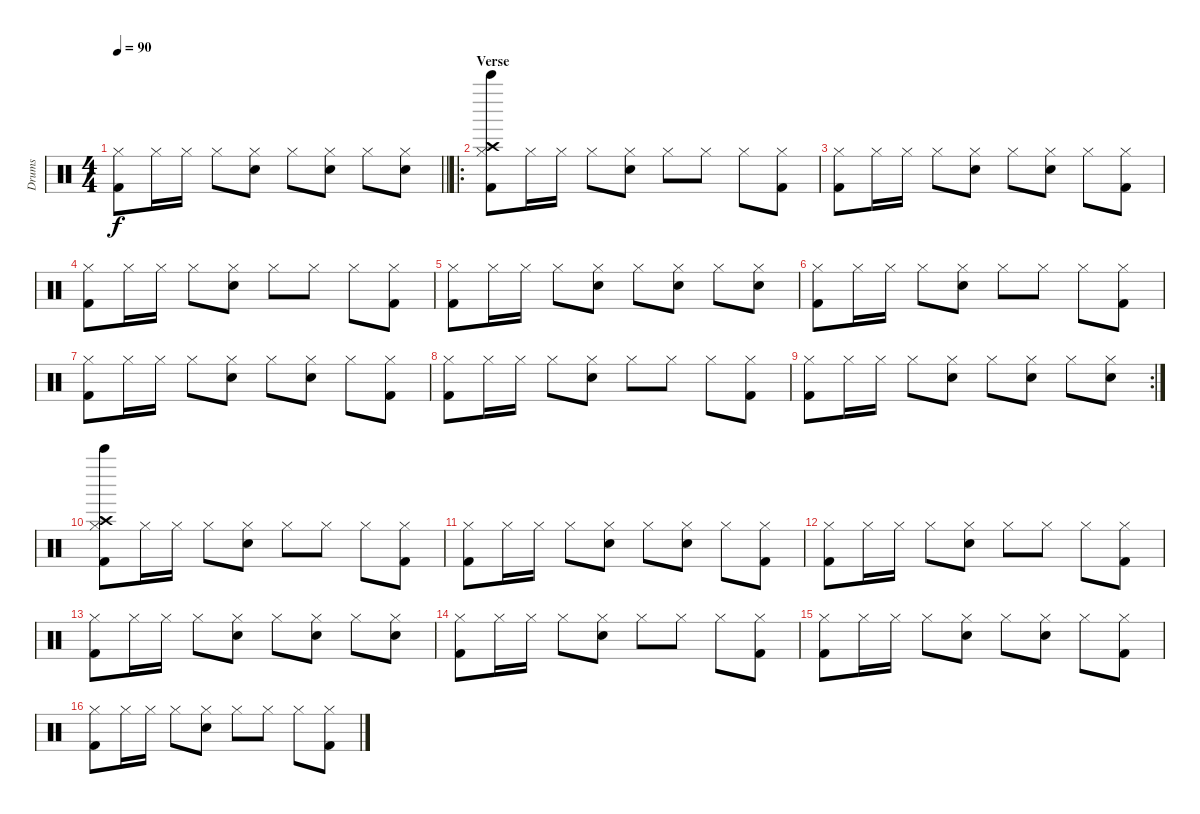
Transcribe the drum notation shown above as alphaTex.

\track ("Drums" "Drums") {instrument percussion}
\staff {score}
\articulation defaults
\ts (4 4)
\tempo 90
\clef neutral
\barLineRight lightlight
\ks c
("Hi-Hat (closed)" "Kick (hit) 2").8{dy f} "Hi-Hat (closed)".16 "Hi-Hat (closed)".16 "Hi-Hat (closed)".8 ("Hi-Hat (closed)" "Snare (hit) 2").8 "Hi-Hat (closed)".8 ("Hi-Hat (closed)" "Snare (hit) 2").8 "Hi-Hat (closed)".8 ("Hi-Hat (closed)" "Snare (hit) 2").8 |
\ro
\section ("" "Verse")
("Hi-Hat (closed)" "Bell Tree (hit)" "Kick (hit) 2" "Crash high (hit)").8 "Hi-Hat (closed)".16 "Hi-Hat (closed)".16 "Hi-Hat (closed)".8 ("Hi-Hat (closed)" "Snare (hit) 2").8 "Hi-Hat (closed)".8 "Hi-Hat (closed)".8 "Hi-Hat (closed)".8 ("Hi-Hat (closed)" "Kick (hit) 2").8 |
("Hi-Hat (closed)" "Kick (hit) 2").8 "Hi-Hat (closed)".16 "Hi-Hat (closed)".16 "Hi-Hat (closed)".8 ("Hi-Hat (closed)" "Snare (hit) 2").8 "Hi-Hat (closed)".8 ("Hi-Hat (closed)" "Snare (hit) 2").8 "Hi-Hat (closed)".8 ("Hi-Hat (closed)" "Kick (hit) 2").8 |
("Hi-Hat (closed)" "Kick (hit) 2").8 "Hi-Hat (closed)".16 "Hi-Hat (closed)".16 "Hi-Hat (closed)".8 ("Hi-Hat (closed)" "Snare (hit) 2").8 "Hi-Hat (closed)".8 "Hi-Hat (closed)".8 "Hi-Hat (closed)".8 ("Hi-Hat (closed)" "Kick (hit) 2").8 |
("Hi-Hat (closed)" "Kick (hit) 2").8 "Hi-Hat (closed)".16 "Hi-Hat (closed)".16 "Hi-Hat (closed)".8 ("Hi-Hat (closed)" "Snare (hit) 2").8 "Hi-Hat (closed)".8 ("Hi-Hat (closed)" "Snare (hit) 2").8 "Hi-Hat (closed)".8 ("Hi-Hat (closed)" "Snare (hit) 2").8 |
("Hi-Hat (closed)" "Kick (hit) 2").8 "Hi-Hat (closed)".16 "Hi-Hat (closed)".16 "Hi-Hat (closed)".8 ("Hi-Hat (closed)" "Snare (hit) 2").8 "Hi-Hat (closed)".8 "Hi-Hat (closed)".8 "Hi-Hat (closed)".8 ("Hi-Hat (closed)" "Kick (hit) 2").8 |
("Hi-Hat (closed)" "Kick (hit) 2").8 "Hi-Hat (closed)".16 "Hi-Hat (closed)".16 "Hi-Hat (closed)".8 ("Hi-Hat (closed)" "Snare (hit) 2").8 "Hi-Hat (closed)".8 ("Hi-Hat (closed)" "Snare (hit) 2").8 "Hi-Hat (closed)".8 ("Hi-Hat (closed)" "Kick (hit) 2").8 |
("Hi-Hat (closed)" "Kick (hit) 2").8 "Hi-Hat (closed)".16 "Hi-Hat (closed)".16 "Hi-Hat (closed)".8 ("Hi-Hat (closed)" "Snare (hit) 2").8 "Hi-Hat (closed)".8 "Hi-Hat (closed)".8 "Hi-Hat (closed)".8 ("Hi-Hat (closed)" "Kick (hit) 2").8 |
\rc 2
("Hi-Hat (closed)" "Kick (hit) 2").8 "Hi-Hat (closed)".16 "Hi-Hat (closed)".16 "Hi-Hat (closed)".8 ("Hi-Hat (closed)" "Snare (hit) 2").8 "Hi-Hat (closed)".8 ("Hi-Hat (closed)" "Snare (hit) 2").8 "Hi-Hat (closed)".8 ("Hi-Hat (closed)" "Snare (hit) 2").8 |
("Hi-Hat (closed)" "Bell Tree (hit)" "Crash high (hit)" "Kick (hit) 2").8 "Hi-Hat (closed)".16 "Hi-Hat (closed)".16 "Hi-Hat (closed)".8 ("Hi-Hat (closed)" "Snare (hit) 2").8 "Hi-Hat (closed)".8 "Hi-Hat (closed)".8 "Hi-Hat (closed)".8 ("Hi-Hat (closed)" "Kick (hit) 2").8 |
("Hi-Hat (closed)" "Kick (hit) 2").8 "Hi-Hat (closed)".16 "Hi-Hat (closed)".16 "Hi-Hat (closed)".8 ("Hi-Hat (closed)" "Snare (hit) 2").8 "Hi-Hat (closed)".8 ("Hi-Hat (closed)" "Snare (hit) 2").8 "Hi-Hat (closed)".8 ("Hi-Hat (closed)" "Kick (hit) 2").8 |
("Hi-Hat (closed)" "Kick (hit) 2").8 "Hi-Hat (closed)".16 "Hi-Hat (closed)".16 "Hi-Hat (closed)".8 ("Hi-Hat (closed)" "Snare (hit) 2").8 "Hi-Hat (closed)".8 "Hi-Hat (closed)".8 "Hi-Hat (closed)".8 ("Hi-Hat (closed)" "Kick (hit) 2").8 |
("Hi-Hat (closed)" "Kick (hit) 2").8 "Hi-Hat (closed)".16 "Hi-Hat (closed)".16 "Hi-Hat (closed)".8 ("Hi-Hat (closed)" "Snare (hit) 2").8 "Hi-Hat (closed)".8 ("Hi-Hat (closed)" "Snare (hit) 2").8 "Hi-Hat (closed)".8 ("Hi-Hat (closed)" "Snare (hit) 2").8 |
("Hi-Hat (closed)" "Kick (hit) 2").8 "Hi-Hat (closed)".16 "Hi-Hat (closed)".16 "Hi-Hat (closed)".8 ("Hi-Hat (closed)" "Snare (hit) 2").8 "Hi-Hat (closed)".8 "Hi-Hat (closed)".8 "Hi-Hat (closed)".8 ("Hi-Hat (closed)" "Kick (hit) 2").8 |
("Hi-Hat (closed)" "Kick (hit) 2").8 "Hi-Hat (closed)".16 "Hi-Hat (closed)".16 "Hi-Hat (closed)".8 ("Hi-Hat (closed)" "Snare (hit) 2").8 "Hi-Hat (closed)".8 ("Hi-Hat (closed)" "Snare (hit) 2").8 "Hi-Hat (closed)".8 ("Hi-Hat (closed)" "Kick (hit) 2").8 |
("Hi-Hat (closed)" "Kick (hit) 2").8 "Hi-Hat (closed)".16 "Hi-Hat (closed)".16 "Hi-Hat (closed)".8 ("Hi-Hat (closed)" "Snare (hit) 2").8 "Hi-Hat (closed)".8 "Hi-Hat (closed)".8 "Hi-Hat (closed)".8 ("Hi-Hat (closed)" "Kick (hit) 2").8
